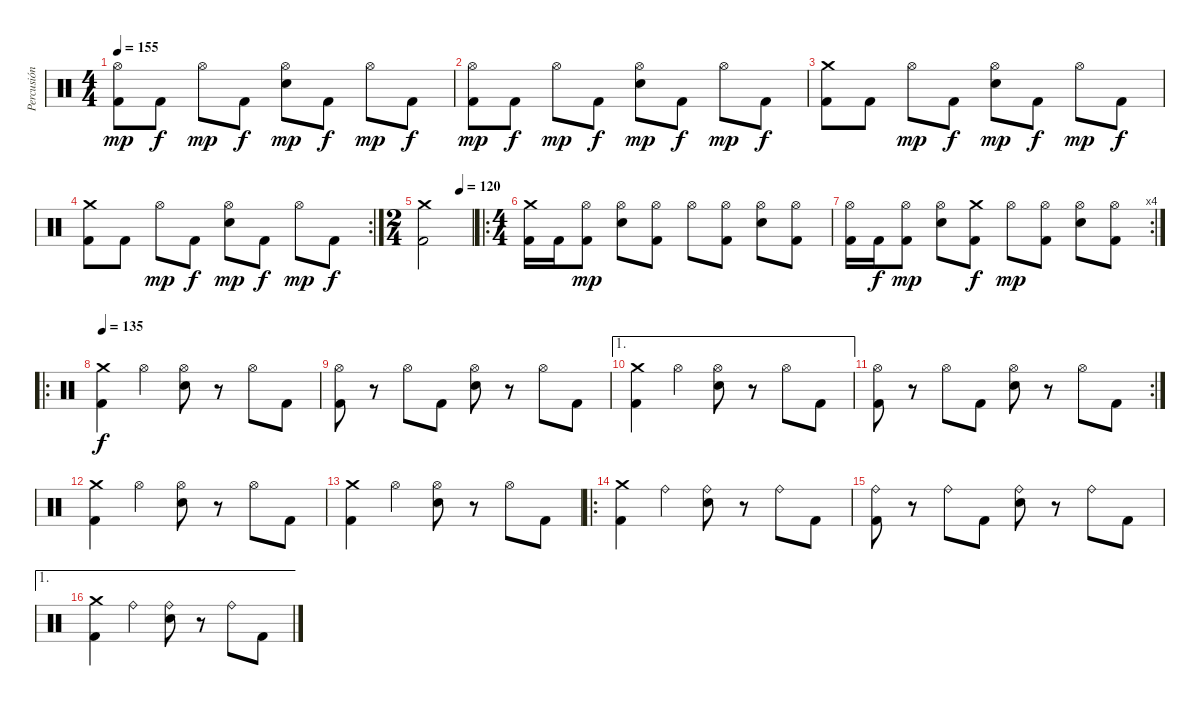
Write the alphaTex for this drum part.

\track ("Percusión" "Percusión") {instrument percussion}
\staff {score}
\articulation defaults
\ts (4 4)
\tempo 155
\clef neutral
\ks c
("Hi-Hat (open)" "Kick (hit) 2").8{dy mp} "Kick (hit) 2".8{dy f} "Hi-Hat (open)".8{dy mp} "Kick (hit) 2".8{dy f} ("Hi-Hat (open)" "Electric Snare (hit)").8{dy mp} "Kick (hit) 2".8{dy f} "Hi-Hat (open)".8{dy mp} "Kick (hit) 2".8{dy f} |
("Hi-Hat (open)" "Kick (hit) 2").8{dy mp} "Kick (hit) 2".8{dy f} "Hi-Hat (open)".8{dy mp} "Kick (hit) 2".8{dy f} ("Hi-Hat (open)" "Electric Snare (hit)").8{dy mp} "Kick (hit) 2".8{dy f} "Hi-Hat (open)".8{dy mp} "Kick (hit) 2".8{dy f} |
("Crash medium (hit)" "Kick (hit) 2").8 "Kick (hit) 2".8 "Hi-Hat (open)".8{dy mp} "Kick (hit) 2".8{dy f} ("Hi-Hat (open)" "Electric Snare (hit)").8{dy mp} "Kick (hit) 2".8{dy f} "Hi-Hat (open)".8{dy mp} "Kick (hit) 2".8{dy f} |
\rc 2
("Crash medium (hit)" "Kick (hit) 2").8 "Kick (hit) 2".8 "Hi-Hat (open)".8{dy mp} "Kick (hit) 2".8{dy f} ("Hi-Hat (open)" "Electric Snare (hit)").8{dy mp} "Kick (hit) 2".8{dy f} "Hi-Hat (open)".8{dy mp} "Kick (hit) 2".8{dy f} |
\ts (2 4)
\tempo (120 0.75)
("Kick (hit) 2" "Crash medium (hit)").2 |
\ro
\ts (4 4)
("Crash medium (hit)" "Kick (hit) 2").16 "Kick (hit) 2".16 ("Hi-Hat (open)" "Kick (hit) 2").8{dy mp} ("Hi-Hat (open)" "Electric Snare (hit)").8 ("Hi-Hat (open)" "Kick (hit) 2").8 "Hi-Hat (open)".8 ("Hi-Hat (open)" "Kick (hit) 2").8 ("Hi-Hat (open)" "Electric Snare (hit)").8 ("Hi-Hat (open)" "Kick (hit) 2").8 |
\rc 4
("Hi-Hat (open)" "Kick (hit) 2").16 "Kick (hit) 2".16{dy f} ("Hi-Hat (open)" "Kick (hit) 2").8{dy mp} ("Hi-Hat (open)" "Electric Snare (hit)").8 ("Crash medium (hit)" "Kick (hit) 2").8{dy f} "Hi-Hat (open)".8{dy mp} ("Hi-Hat (open)" "Kick (hit) 2").8 ("Hi-Hat (open)" "Electric Snare (hit)").8 ("Hi-Hat (open)" "Kick (hit) 2").8 |
\ro
\tempo 135
("Crash medium (hit)" "Kick (hit) 2").4{dy f} "Hi-Hat (open)".4 ("Hi-Hat (open)" "Electric Snare (hit)").8 r.8 "Hi-Hat (open)".8 "Kick (hit) 2".8 |
("Hi-Hat (open)" "Kick (hit) 2").8 r.8 "Hi-Hat (open)".8 "Kick (hit) 2".8 ("Hi-Hat (open)" "Electric Snare (hit)").8 r.8 "Hi-Hat (open)".8 "Kick (hit) 2".8 |
\ae 1
("Crash medium (hit)" "Kick (hit) 2").4 "Hi-Hat (open)".4 ("Hi-Hat (open)" "Electric Snare (hit)").8 r.8 "Hi-Hat (open)".8 "Kick (hit) 2".8 |
\rc 2
("Hi-Hat (open)" "Kick (hit) 2").8 r.8 "Hi-Hat (open)".8 "Kick (hit) 2".8 ("Hi-Hat (open)" "Electric Snare (hit)").8 r.8 "Hi-Hat (open)".8 "Kick (hit) 2".8 |
("Crash medium (hit)" "Kick (hit) 2").4 "Hi-Hat (open)".4 ("Hi-Hat (open)" "Electric Snare (hit)").8 r.8 "Hi-Hat (open)".8 "Kick (hit) 2".8 |
("Crash medium (hit)" "Kick (hit) 2").4 "Hi-Hat (open)".4 ("Hi-Hat (open)" "Electric Snare (hit)").8 r.8 "Hi-Hat (open)".8 "Kick (hit) 2".8 |
\ro
("Crash medium (hit)" "Kick (hit) 2").4 "Ride (bell)".4 ("Ride (bell)" "Electric Snare (hit)").8 r.8 "Ride (bell)".8 "Kick (hit) 2".8 |
("Ride (bell)" "Kick (hit) 2").8 r.8 "Ride (bell)".8 "Kick (hit) 2".8 ("Ride (bell)" "Electric Snare (hit)").8 r.8 "Ride (bell)".8 "Kick (hit) 2".8 |
\ae 1
("Crash medium (hit)" "Kick (hit) 2").4 "Ride (bell)".4 ("Ride (bell)" "Electric Snare (hit)").8 r.8 "Ride (bell)".8 "Kick (hit) 2".8
